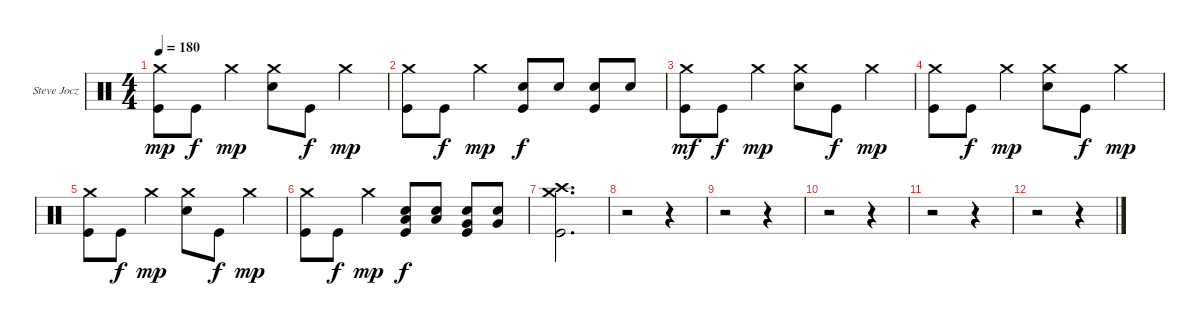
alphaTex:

\defaultSystemsLayout 4
\bracketExtendMode groupsimilarinstruments
\firstSystemTrackNameOrientation horizontal
\otherSystemsTrackNameOrientation horizontal
\track ("Steve Jocz " "Steve Jocz") {instrument percussion}
\staff {score}
\articulation defaults
\ts (4 4)
\tempo 180
\clef neutral
\ks c
("Crash medium (hit)" "Kick (hit)").8{dy mp} "Kick (hit)".8{dy f} "Crash medium (hit)".4{dy mp} ("Crash medium (hit)" "Snare (hit) 2").8 "Kick (hit)".8{dy f} "Crash medium (hit)".4{dy mp} |
("Crash medium (hit)" "Kick (hit)").8 "Kick (hit)".8{dy f} "Crash medium (hit)".4{dy mp} ("Snare (hit) 2" "Kick (hit)").8{dy f} "Snare (hit) 2".8 ("Snare (hit) 2" "Kick (hit)").8 "Snare (hit) 2".8 |
("Crash medium (hit)" "Kick (hit)").8{dy mf} "Kick (hit)".8{dy f} "Crash medium (hit)".4{dy mp} ("Crash medium (hit)" "Snare (hit) 2").8 "Kick (hit)".8{dy f} "Crash medium (hit)".4{dy mp} |
("Crash medium (hit)" "Kick (hit)").8 "Kick (hit)".8{dy f} "Crash medium (hit)".4{dy mp} ("Crash medium (hit)" "Snare (hit) 2").8 "Kick (hit)".8{dy f} "Crash medium (hit)".4{dy mp} |
("Crash medium (hit)" "Kick (hit)").8 "Kick (hit)".8{dy f} "Crash medium (hit)".4{dy mp} ("Crash medium (hit)" "Snare (hit) 2").8 "Kick (hit)".8{dy f} "Crash medium (hit)".4{dy mp} |
("Crash medium (hit)" "Kick (hit)").8 "Kick (hit)".8{dy f} "Crash medium (hit)".4{dy mp} ("Snare (hit) 2" "Low Tom (hit)" "Kick (hit)").8{dy f} ("Snare (hit) 2" "Low Tom (hit)").8 ("Snare (hit) 2" "Very Low Tom (hit)" "Kick (hit)").8 ("Snare (hit) 2" "Very Low Tom (hit)").8 |
("Crash high (hit)" "Crash medium (hit)" "Kick (hit)").2{d} |
r.2 r.4 |
r.2 r.4 |
r.2 r.4 |
r.2 r.4 |
r.2 r.4
